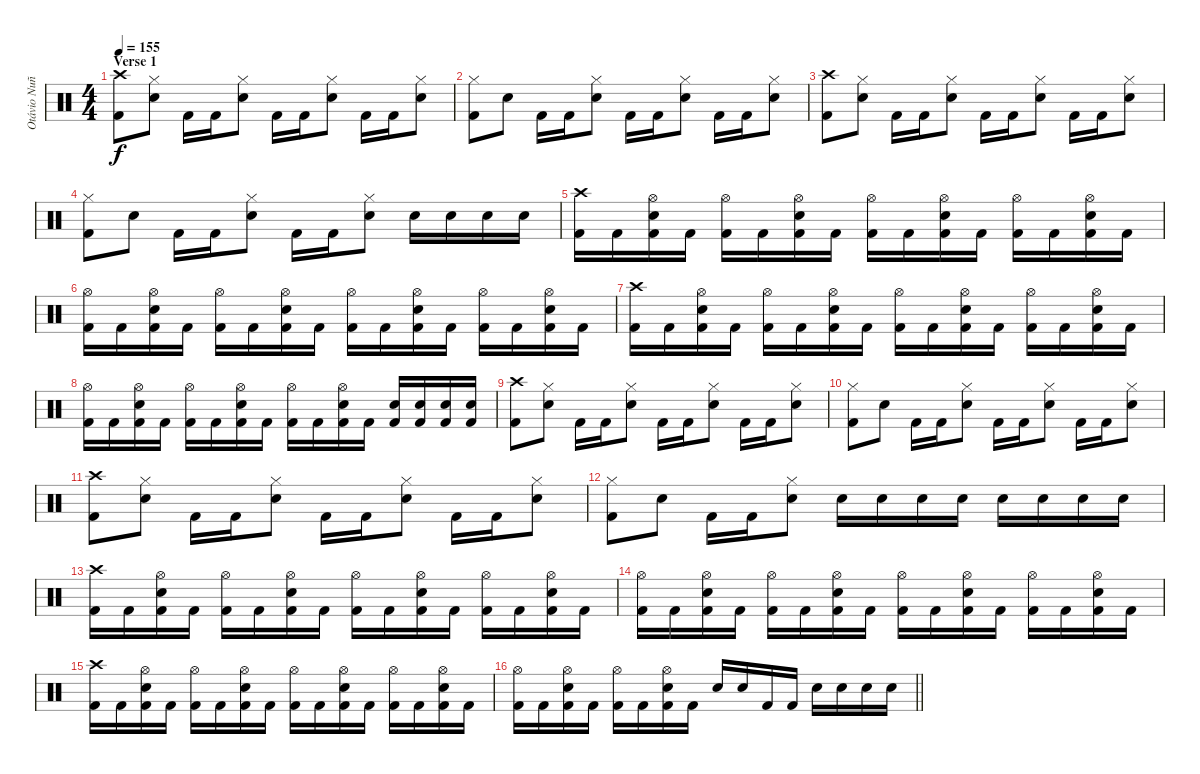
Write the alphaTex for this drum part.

\track ("Otávio Nuñez" "Otávio Nuñ") {instrument percussion}
\staff {score}
\articulation defaults
\ts (4 4)
\section ("" "Verse 1")
\tempo 155
\clef neutral
\ks c
("Crash high (hit)" "Kick (hit) 2").8{dy f} ("Hi-Hat (closed)" "Electric Snare (hit)").8 "Kick (hit) 2".16 "Kick (hit) 2".16 ("Hi-Hat (closed)" "Electric Snare (hit)").8 "Kick (hit) 2".16 "Kick (hit) 2".16 ("Hi-Hat (closed)" "Electric Snare (hit)").8 "Kick (hit) 2".16 "Kick (hit) 2".16 ("Hi-Hat (closed)" "Electric Snare (hit)").8 |
("Hi-Hat (closed)" "Kick (hit) 2").8 "Electric Snare (hit)".8 "Kick (hit) 2".16 "Kick (hit) 2".16 ("Hi-Hat (closed)" "Electric Snare (hit)").8 "Kick (hit) 2".16 "Kick (hit) 2".16 ("Hi-Hat (closed)" "Electric Snare (hit)").8 "Kick (hit) 2".16 "Kick (hit) 2".16 ("Hi-Hat (closed)" "Electric Snare (hit)").8 |
("Crash high (hit)" "Kick (hit) 2").8 ("Hi-Hat (closed)" "Electric Snare (hit)").8 "Kick (hit) 2".16 "Kick (hit) 2".16 ("Hi-Hat (closed)" "Electric Snare (hit)").8 "Kick (hit) 2".16 "Kick (hit) 2".16 ("Hi-Hat (closed)" "Electric Snare (hit)").8 "Kick (hit) 2".16 "Kick (hit) 2".16 ("Hi-Hat (closed)" "Electric Snare (hit)").8 |
("Hi-Hat (closed)" "Kick (hit) 2").8 "Electric Snare (hit)".8 "Kick (hit) 2".16 "Kick (hit) 2".16 ("Hi-Hat (closed)" "Electric Snare (hit)").8 "Kick (hit) 2".16 "Kick (hit) 2".16 ("Hi-Hat (closed)" "Electric Snare (hit)").8 "Electric Snare (hit)".16 "Electric Snare (hit)".16 "Electric Snare (hit)".16 "Electric Snare (hit)".16 |
("Crash high (hit)" "Kick (hit) 2").16 "Kick (hit) 2".16 ("Hi-Hat (open)" "Electric Snare (hit)" "Kick (hit) 2").16 "Kick (hit) 2".16 ("Hi-Hat (open)" "Kick (hit) 2").16 "Kick (hit) 2".16 ("Hi-Hat (open)" "Electric Snare (hit)" "Kick (hit) 2").16 "Kick (hit) 2".16 ("Hi-Hat (open)" "Kick (hit) 2").16 "Kick (hit) 2".16 ("Hi-Hat (open)" "Electric Snare (hit)" "Kick (hit) 2").16 "Kick (hit) 2".16 ("Hi-Hat (open)" "Kick (hit) 2").16 "Kick (hit) 2".16 ("Hi-Hat (open)" "Electric Snare (hit)" "Kick (hit) 2").16 "Kick (hit) 2".16 |
("Hi-Hat (open)" "Kick (hit) 2").16 "Kick (hit) 2".16 ("Hi-Hat (open)" "Electric Snare (hit)" "Kick (hit) 2").16 "Kick (hit) 2".16 ("Hi-Hat (open)" "Kick (hit) 2").16 "Kick (hit) 2".16 ("Hi-Hat (open)" "Electric Snare (hit)" "Kick (hit) 2").16 "Kick (hit) 2".16 ("Hi-Hat (open)" "Kick (hit) 2").16 "Kick (hit) 2".16 ("Hi-Hat (open)" "Electric Snare (hit)" "Kick (hit) 2").16 "Kick (hit) 2".16 ("Hi-Hat (open)" "Kick (hit) 2").16 "Kick (hit) 2".16 ("Hi-Hat (open)" "Electric Snare (hit)" "Kick (hit) 2").16 "Kick (hit) 2".16 |
("Crash high (hit)" "Kick (hit) 2").16 "Kick (hit) 2".16 ("Hi-Hat (open)" "Electric Snare (hit)" "Kick (hit) 2").16 "Kick (hit) 2".16 ("Hi-Hat (open)" "Kick (hit) 2").16 "Kick (hit) 2".16 ("Hi-Hat (open)" "Electric Snare (hit)" "Kick (hit) 2").16 "Kick (hit) 2".16 ("Hi-Hat (open)" "Kick (hit) 2").16 "Kick (hit) 2".16 ("Hi-Hat (open)" "Electric Snare (hit)" "Kick (hit) 2").16 "Kick (hit) 2".16 ("Hi-Hat (open)" "Kick (hit) 2").16 "Kick (hit) 2".16 ("Hi-Hat (open)" "Electric Snare (hit)" "Kick (hit) 2").16 "Kick (hit) 2".16 |
("Hi-Hat (open)" "Kick (hit) 2").16 "Kick (hit) 2".16 ("Hi-Hat (open)" "Electric Snare (hit)" "Kick (hit) 2").16 "Kick (hit) 2".16 ("Hi-Hat (open)" "Kick (hit) 2").16 "Kick (hit) 2".16 ("Hi-Hat (open)" "Electric Snare (hit)" "Kick (hit) 2").16 "Kick (hit) 2".16 ("Hi-Hat (open)" "Kick (hit) 2").16 "Kick (hit) 2".16 ("Hi-Hat (open)" "Electric Snare (hit)" "Kick (hit) 2").16 "Kick (hit) 2".16 ("Electric Snare (hit)" "Kick (hit) 2").16 ("Electric Snare (hit)" "Kick (hit) 2").16 ("Electric Snare (hit)" "Kick (hit) 2").16 ("Electric Snare (hit)" "Kick (hit) 2").16 |
("Crash high (hit)" "Kick (hit) 2").8 ("Hi-Hat (closed)" "Electric Snare (hit)").8 "Kick (hit) 2".16 "Kick (hit) 2".16 ("Hi-Hat (closed)" "Electric Snare (hit)").8 "Kick (hit) 2".16 "Kick (hit) 2".16 ("Hi-Hat (closed)" "Electric Snare (hit)").8 "Kick (hit) 2".16 "Kick (hit) 2".16 ("Hi-Hat (closed)" "Electric Snare (hit)").8 |
("Hi-Hat (closed)" "Kick (hit) 2").8 "Electric Snare (hit)".8 "Kick (hit) 2".16 "Kick (hit) 2".16 ("Hi-Hat (closed)" "Electric Snare (hit)").8 "Kick (hit) 2".16 "Kick (hit) 2".16 ("Hi-Hat (closed)" "Electric Snare (hit)").8 "Kick (hit) 2".16 "Kick (hit) 2".16 ("Hi-Hat (closed)" "Electric Snare (hit)").8 |
("Crash high (hit)" "Kick (hit) 2").8 ("Hi-Hat (closed)" "Electric Snare (hit)").8 "Kick (hit) 2".16 "Kick (hit) 2".16 ("Hi-Hat (closed)" "Electric Snare (hit)").8 "Kick (hit) 2".16 "Kick (hit) 2".16 ("Hi-Hat (closed)" "Electric Snare (hit)").8 "Kick (hit) 2".16 "Kick (hit) 2".16 ("Hi-Hat (closed)" "Electric Snare (hit)").8 |
("Hi-Hat (closed)" "Kick (hit) 2").8 "Electric Snare (hit)".8 "Kick (hit) 2".16 "Kick (hit) 2".16 ("Hi-Hat (closed)" "Electric Snare (hit)").8 "Electric Snare (hit)".16 "Electric Snare (hit)".16 "Electric Snare (hit)".16 "Electric Snare (hit)".16 "Electric Snare (hit)".16 "Electric Snare (hit)".16 "Electric Snare (hit)".16 "Electric Snare (hit)".16 |
("Crash high (hit)" "Kick (hit) 2").16 "Kick (hit) 2".16 ("Hi-Hat (open)" "Electric Snare (hit)" "Kick (hit) 2").16 "Kick (hit) 2".16 ("Hi-Hat (open)" "Kick (hit) 2").16 "Kick (hit) 2".16 ("Hi-Hat (open)" "Electric Snare (hit)" "Kick (hit) 2").16 "Kick (hit) 2".16 ("Hi-Hat (open)" "Kick (hit) 2").16 "Kick (hit) 2".16 ("Hi-Hat (open)" "Electric Snare (hit)" "Kick (hit) 2").16 "Kick (hit) 2".16 ("Hi-Hat (open)" "Kick (hit) 2").16 "Kick (hit) 2".16 ("Hi-Hat (open)" "Electric Snare (hit)" "Kick (hit) 2").16 "Kick (hit) 2".16 |
("Hi-Hat (open)" "Kick (hit) 2").16 "Kick (hit) 2".16 ("Hi-Hat (open)" "Electric Snare (hit)" "Kick (hit) 2").16 "Kick (hit) 2".16 ("Hi-Hat (open)" "Kick (hit) 2").16 "Kick (hit) 2".16 ("Hi-Hat (open)" "Electric Snare (hit)" "Kick (hit) 2").16 "Kick (hit) 2".16 ("Hi-Hat (open)" "Kick (hit) 2").16 "Kick (hit) 2".16 ("Hi-Hat (open)" "Electric Snare (hit)" "Kick (hit) 2").16 "Kick (hit) 2".16 ("Hi-Hat (open)" "Kick (hit) 2").16 "Kick (hit) 2".16 ("Hi-Hat (open)" "Electric Snare (hit)" "Kick (hit) 2").16 "Kick (hit) 2".16 |
("Crash high (hit)" "Kick (hit) 2").16 "Kick (hit) 2".16 ("Hi-Hat (open)" "Electric Snare (hit)" "Kick (hit) 2").16 "Kick (hit) 2".16 ("Hi-Hat (open)" "Kick (hit) 2").16 "Kick (hit) 2".16 ("Hi-Hat (open)" "Electric Snare (hit)" "Kick (hit) 2").16 "Kick (hit) 2".16 ("Hi-Hat (open)" "Kick (hit) 2").16 "Kick (hit) 2".16 ("Hi-Hat (open)" "Electric Snare (hit)" "Kick (hit) 2").16 "Kick (hit) 2".16 ("Hi-Hat (open)" "Kick (hit) 2").16 "Kick (hit) 2".16 ("Hi-Hat (open)" "Electric Snare (hit)" "Kick (hit) 2").16 "Kick (hit) 2".16 |
\barLineRight lightlight
("Hi-Hat (open)" "Kick (hit) 2").16 "Kick (hit) 2".16 ("Hi-Hat (open)" "Electric Snare (hit)" "Kick (hit) 2").16 "Kick (hit) 2".16 ("Hi-Hat (open)" "Kick (hit) 2").16 "Kick (hit) 2".16 ("Hi-Hat (open)" "Electric Snare (hit)" "Kick (hit) 2").16 "Kick (hit) 2".16 "Electric Snare (hit)".16 "Electric Snare (hit)".16 "Kick (hit) 2".16 "Kick (hit) 2".16 "Electric Snare (hit)".16 "Electric Snare (hit)".16 "Electric Snare (hit)".16 "Electric Snare (hit)".16
